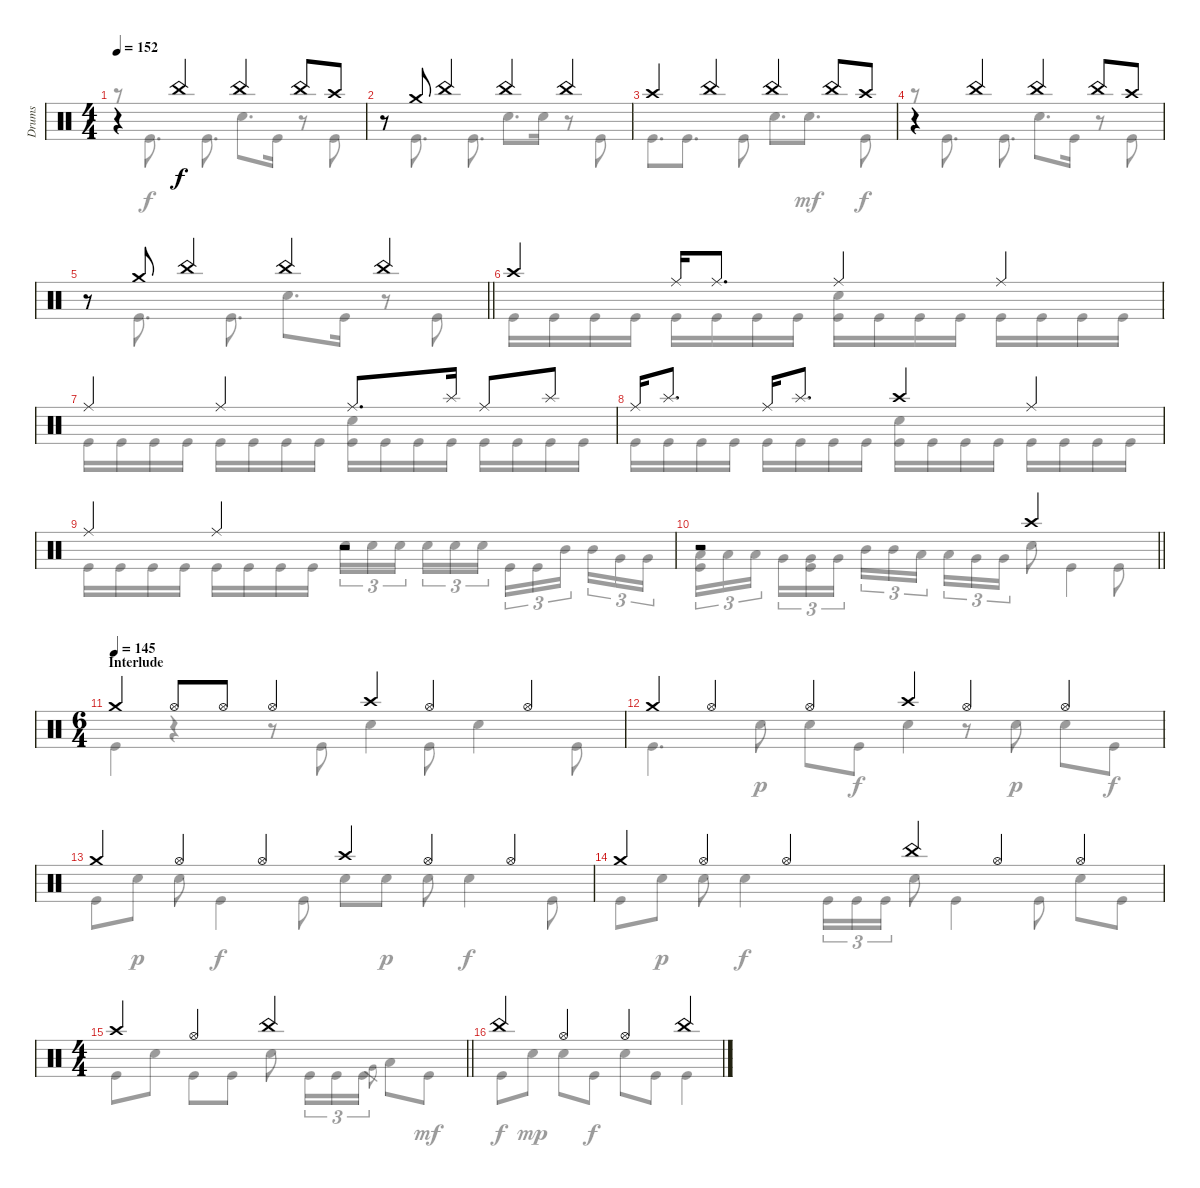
\track ("Drums" "Drums") {instrument percussion}
\staff {score}
\articulation defaults
\voice
\ts (4 4)
\tempo 152
\clef neutral
\ks c
r.4{dy f} "China (hit)".4 "China (hit)".4 "China (hit)".8 "Crash high (hit)".8 |
r.8 "Crash medium (hit)".8 "China (hit)".4 "China (hit)".4 "China (hit)".4 |
"Crash high (hit)".4 "China (hit)".4 "China (hit)".4 "China (hit)".8 "Crash high (hit)".8 |
r.4 "China (hit)".4 "China (hit)".4 "China (hit)".8 "Crash high (hit)".8 |
\barLineRight lightlight
r.8 "Crash medium (hit)".8 "China (hit)".4 "China (hit)".4 "China (hit)".4 |
\section ("" "")
"Crash high (hit)".4 "Ride (middle)".16 "Ride (middle)".8{d} "Ride (middle)".4 "Ride (middle)".4 |
"Ride (middle)".4 "Ride (middle)".4 "Ride (middle)".8{d} "Splash (hit)".16 "Ride (middle)".8 "Splash (hit)".8 |
"Ride (middle)".16 "Splash (hit)".8{d} "Ride (middle)".16 "Splash (hit)".8{d} "Crash high (hit)".4 "Ride (middle)".4 |
"Ride (middle)".4 "Ride (middle)".4 r.2 |
\barLineRight lightlight
r.2 "Crash high (hit)".2 |
\ts (6 4)
\section ("" "Interlude ")
\tempo (145)
"Crash medium (hit)".4 "Hi-Hat (open)".8 "Hi-Hat (open)".8 "Hi-Hat (open)".4 "Crash high (hit)".4 "Hi-Hat (open)".4 "Hi-Hat (open)".4 |
"Crash medium (hit)".4 "Hi-Hat (open)".4 "Hi-Hat (open)".4 "Crash high (hit)".4 "Hi-Hat (open)".4 "Hi-Hat (open)".4 |
"Crash medium (hit)".4 "Hi-Hat (open)".4 "Hi-Hat (open)".4 "Crash high (hit)".4 "Hi-Hat (open)".4 "Hi-Hat (open)".4 |
"Crash medium (hit)".4 "Hi-Hat (open)".4 "Hi-Hat (open)".4 "China (hit)".4 "Hi-Hat (open)".4 "Hi-Hat (open)".4 |
\ts (4 4)
\barLineRight lightlight "Crash high (hit)".4 "Hi-Hat (open)".4 "China (hit)".2
|
\section ("" "")
"China (hit)".4 "Hi-Hat (open)".4 "Hi-Hat (open)".4 "China (hit)".4
\voice
\clef neutral
\ottava regular
\simile none
\ks c
r.8{dy f} "Kick (hit)".8{d} "Kick (hit)".8{d} "Snare (hit) 2".8{d} "Kick (hit)".16 r.8 "Kick (hit)".8 |
r.8 "Kick (hit)".8{d} "Kick (hit)".8{d} "Snare (hit) 2".8{d} "Snare (hit) 2".16 r.8 "Kick (hit)".8 |
"Kick (hit)".8{d} "Kick (hit)".8{d} "Kick (hit)".8 "Snare (hit) 2".8{d} "Snare (hit) 2".8{d dy mf} "Kick (hit)".8{dy f} |
r.8 "Kick (hit)".8{d} "Kick (hit)".8{d} "Snare (hit) 2".8{d} "Kick (hit)".16 r.8 "Kick (hit)".8 |
\barLineRight lightlight
r.8 "Kick (hit)".8{d} "Kick (hit)".8{d} "Snare (hit) 2".8{d} "Kick (hit)".16 r.8 "Kick (hit)".8 |
"Kick (hit)".16 "Kick (hit)".16 "Kick (hit)".16 "Kick (hit)".16 "Kick (hit)".16 "Kick (hit)".16 "Kick (hit)".16 "Kick (hit)".16 ("Snare (hit) 2" "Kick (hit)").16 "Kick (hit)".16 "Kick (hit)".16 "Kick (hit)".16 "Kick (hit)".16 "Kick (hit)".16 "Kick (hit)".16 "Kick (hit)".16 |
"Kick (hit)".16 "Kick (hit)".16 "Kick (hit)".16 "Kick (hit)".16 "Kick (hit)".16 "Kick (hit)".16 "Kick (hit)".16 "Kick (hit)".16 ("Snare (hit) 2" "Kick (hit)").16 "Kick (hit)".16 "Kick (hit)".16 "Kick (hit)".16 "Kick (hit)".16 "Kick (hit)".16 "Kick (hit)".16 "Kick (hit)".16 |
"Kick (hit)".16 "Kick (hit)".16 "Kick (hit)".16 "Kick (hit)".16 "Kick (hit)".16 "Kick (hit)".16 "Kick (hit)".16 "Kick (hit)".16 ("Snare (hit) 2" "Kick (hit)").16 "Kick (hit)".16 "Kick (hit)".16 "Kick (hit)".16 "Kick (hit)".16 "Kick (hit)".16 "Kick (hit)".16 "Kick (hit)".16 |
"Kick (hit)".16 "Kick (hit)".16 "Kick (hit)".16 "Kick (hit)".16 "Kick (hit)".16 "Kick (hit)".16 "Kick (hit)".16 "Kick (hit)".16 "Snare (hit) 2".16{tu (3 2)} "Snare (hit) 2".16{tu (3 2)} "Snare (hit) 2".16{tu (3 2) beam splitsecondary} "Snare (hit) 2".16{tu (3 2)} "Snare (hit) 2".16{tu (3 2)} "Snare (hit) 2".16{tu (3 2)} "Kick (hit)".16{tu (3 2)} "Kick (hit)".16{tu (3 2)} "Mid Tom (hit)".16{tu (3 2) beam splitsecondary} "Mid Tom (hit)".16{tu (3 2)} "Very Low Tom (hit)".16{tu (3 2)} "Very Low Tom (hit)".16{tu (3 2)} |
\barLineRight lightlight
("Low Tom (hit)" "Kick (hit)").16{tu (3 2)} "Low Tom (hit)".16{tu (3 2)} "Low Tom (hit)".16{tu (3 2) beam splitsecondary} "Very Low Tom (hit)".16{tu (3 2)} ("Very Low Tom (hit)" "Kick (hit)").16{tu (3 2)} "Very Low Tom (hit)".16{tu (3 2)} "Mid Tom (hit)".16{tu (3 2)} "Mid Tom (hit)".16{tu (3 2)} "Low Tom (hit)".16{tu (3 2) beam splitsecondary} "Low Tom (hit)".16{tu (3 2)} "Very Low Tom (hit)".16{tu (3 2)} "Very Low Tom (hit)".16{tu (3 2)} "Snare (hit) 2".8 "Kick (hit)".4 "Kick (hit)".8 |
"Kick (hit)".4 r.4 r.8 "Kick (hit)".8 "Snare (hit) 2".4 "Kick (hit)".8 "Snare (hit) 2".4 "Kick (hit)".8 |
"Kick (hit)".4{d} "Snare (hit) 2".8{dy p} "Snare (hit) 2".8 "Kick (hit)".8{dy f} "Snare (hit) 2".4 r.8 "Snare (hit) 2".8{dy p} "Snare (hit) 2".8 "Kick (hit)".8{dy f} |
"Kick (hit)".8 "Snare (hit) 2".8{dy p} "Snare (hit) 2".8 "Kick (hit)".4{dy f} "Kick (hit)".8 "Snare (hit) 2".8 "Snare (hit) 2".8{dy p} "Snare (hit) 2".8 "Snare (hit) 2".4{dy f} "Kick (hit)".8 |
"Kick (hit)".8 "Snare (hit) 2".8{dy p} "Snare (hit) 2".8 "Snare (hit) 2".4{dy f} "Kick (hit)".16{tu (3 2)} "Kick (hit)".16{tu (3 2)} "Kick (hit)".16{tu (3 2)} "Snare (hit) 2".8 "Kick (hit)".4 "Kick (hit)".8 "Snare (hit) 2".8 "Kick (hit)".8 |
\barLineRight lightlight "Kick (hit)".8 "Snare (hit) 2".8 "Kick (hit)".8 "Kick (hit)".8 "Snare (hit) 2".8 "Kick (hit)".16{tu (3 2)} "Kick (hit)".16{tu (3 2)} "Kick (hit)".16{tu (3 2)} "Very Low Tom (hit)".8{gr} "Low Tom (hit)".8 "Kick (hit)".8{dy mf}
|
"Kick (hit)".8{dy f} "Snare (hit) 2".8{dy mp} "Snare (hit) 2".8 "Kick (hit)".8{dy f} "Snare (hit) 2".8 "Kick (hit)".8 "Kick (hit)".4
